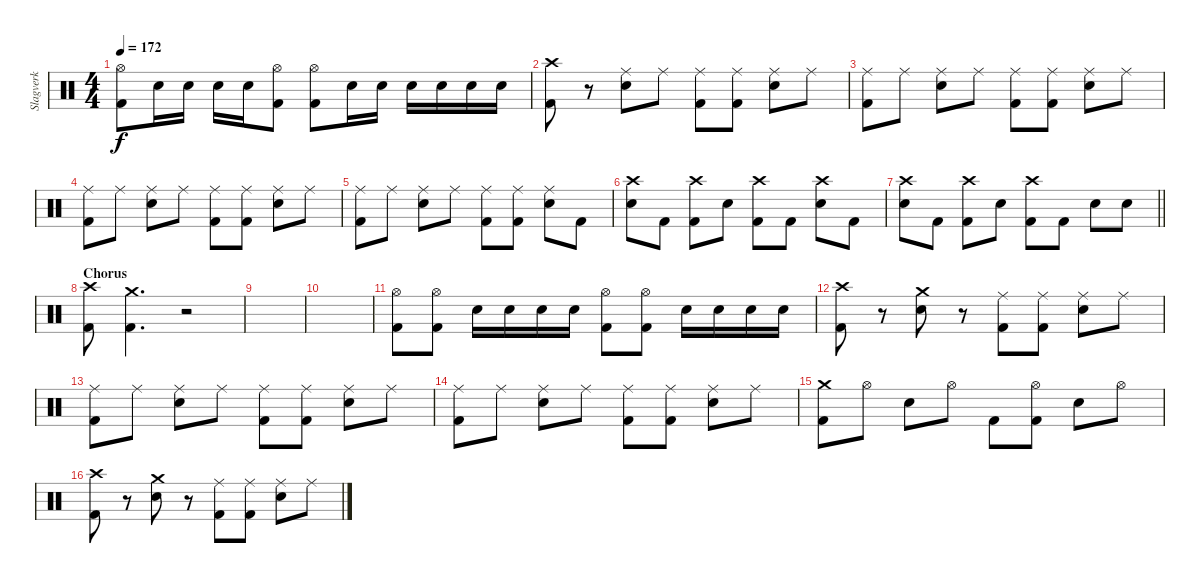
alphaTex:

\track ("Slagverk" "Slagverk") {instrument percussion}
\staff {score}
\articulation defaults
\ts (4 4)
\tempo 172
\clef neutral
\ks c
("Hi-Hat (open)" "Kick (hit) 2").8{dy f} "Electric Snare (hit)".16 "Electric Snare (hit)".16 "Electric Snare (hit)".16 "Electric Snare (hit)".16 ("Hi-Hat (open)" "Kick (hit) 2").8 ("Hi-Hat (open)" "Kick (hit) 2").8 "Electric Snare (hit)".16 "Electric Snare (hit)".16 "Electric Snare (hit)".16 "Electric Snare (hit)".16 "Electric Snare (hit)".16 "Electric Snare (hit)".16 |
("Crash high (hit)" "Kick (hit) 2").8 r.8 ("Ride (middle)" "Electric Snare (hit)").8 "Ride (middle)".8 ("Ride (middle)" "Kick (hit) 2").8 ("Ride (middle)" "Kick (hit) 2").8 ("Ride (middle)" "Electric Snare (hit)").8 "Ride (middle)".8 |
("Ride (middle)" "Kick (hit) 2").8 "Ride (middle)".8 ("Ride (middle)" "Electric Snare (hit)").8 "Ride (middle)".8 ("Ride (middle)" "Kick (hit) 2").8 ("Ride (middle)" "Kick (hit) 2").8 ("Ride (middle)" "Electric Snare (hit)").8 "Ride (middle)".8 |
("Ride (middle)" "Kick (hit) 2").8 "Ride (middle)".8 ("Ride (middle)" "Electric Snare (hit)").8 "Ride (middle)".8 ("Ride (middle)" "Kick (hit) 2").8 ("Ride (middle)" "Kick (hit) 2").8 ("Ride (middle)" "Electric Snare (hit)").8 "Ride (middle)".8 |
("Ride (middle)" "Kick (hit) 2").8 "Ride (middle)".8 ("Ride (middle)" "Electric Snare (hit)").8 "Ride (middle)".8 ("Ride (middle)" "Kick (hit) 2").8 ("Ride (middle)" "Kick (hit) 2").8 ("Ride (middle)" "Electric Snare (hit)").8 "Kick (hit) 2".8 |
("Crash high (hit)" "Electric Snare (hit)").8 "Kick (hit) 2".8 ("Crash high (hit)" "Kick (hit) 2").8 "Electric Snare (hit)".8 ("Crash high (hit)" "Kick (hit) 2").8 "Kick (hit) 2".8 ("Crash high (hit)" "Electric Snare (hit)").8 "Kick (hit) 2".8 |
\barLineRight lightlight
("Crash high (hit)" "Electric Snare (hit)").8 "Kick (hit) 2".8 ("Crash high (hit)" "Kick (hit) 2").8 "Electric Snare (hit)".8 ("Crash high (hit)" "Kick (hit) 2").8 "Kick (hit) 2".8 "Electric Snare (hit)".8 "Electric Snare (hit)".8 |
\section ("" "Chorus")
("Crash high (hit)" "Kick (hit) 2").8 ("Crash medium (hit)" "Kick (hit) 2").4{d} r.2 |
|
|
("Hi-Hat (open)" "Kick (hit) 2").8 ("Hi-Hat (open)" "Kick (hit) 2").8 "Electric Snare (hit)".16 "Electric Snare (hit)".16 "Electric Snare (hit)".16 "Electric Snare (hit)".16 ("Hi-Hat (open)" "Kick (hit) 2").8 ("Hi-Hat (open)" "Kick (hit) 2").8 "Electric Snare (hit)".16 "Electric Snare (hit)".16 "Electric Snare (hit)".16 "Electric Snare (hit)".16 |
("Crash high (hit)" "Kick (hit) 2").8 r.8 ("Crash medium (hit)" "Electric Snare (hit)").8 r.8 ("Ride (middle)" "Kick (hit) 2").8 ("Ride (middle)" "Kick (hit) 2").8 ("Ride (middle)" "Electric Snare (hit)").8 "Ride (middle)".8 |
("Ride (middle)" "Kick (hit) 2").8 "Ride (middle)".8 ("Ride (middle)" "Electric Snare (hit)").8 "Ride (middle)".8 ("Ride (middle)" "Kick (hit) 2").8 ("Ride (middle)" "Kick (hit) 2").8 ("Ride (middle)" "Electric Snare (hit)").8 "Ride (middle)".8 |
("Ride (middle)" "Kick (hit) 2").8 "Ride (middle)".8 ("Ride (middle)" "Electric Snare (hit)").8 "Ride (middle)".8 ("Ride (middle)" "Kick (hit) 2").8 ("Ride (middle)" "Kick (hit) 2").8 ("Ride (middle)" "Electric Snare (hit)").8 "Ride (middle)".8 |
("Crash medium (hit)" "Kick (hit) 2").8 "Hi-Hat (open)".8 "Electric Snare (hit)".8 "Hi-Hat (open)".8 "Kick (hit) 2".8 ("Hi-Hat (open)" "Kick (hit) 2").8 "Electric Snare (hit)".8 "Hi-Hat (open)".8 |
("Crash high (hit)" "Kick (hit) 2").8 r.8 ("Crash medium (hit)" "Electric Snare (hit)").8 r.8 ("Ride (middle)" "Kick (hit) 2").8 ("Ride (middle)" "Kick (hit) 2").8 ("Ride (middle)" "Electric Snare (hit)").8 "Ride (middle)".8
